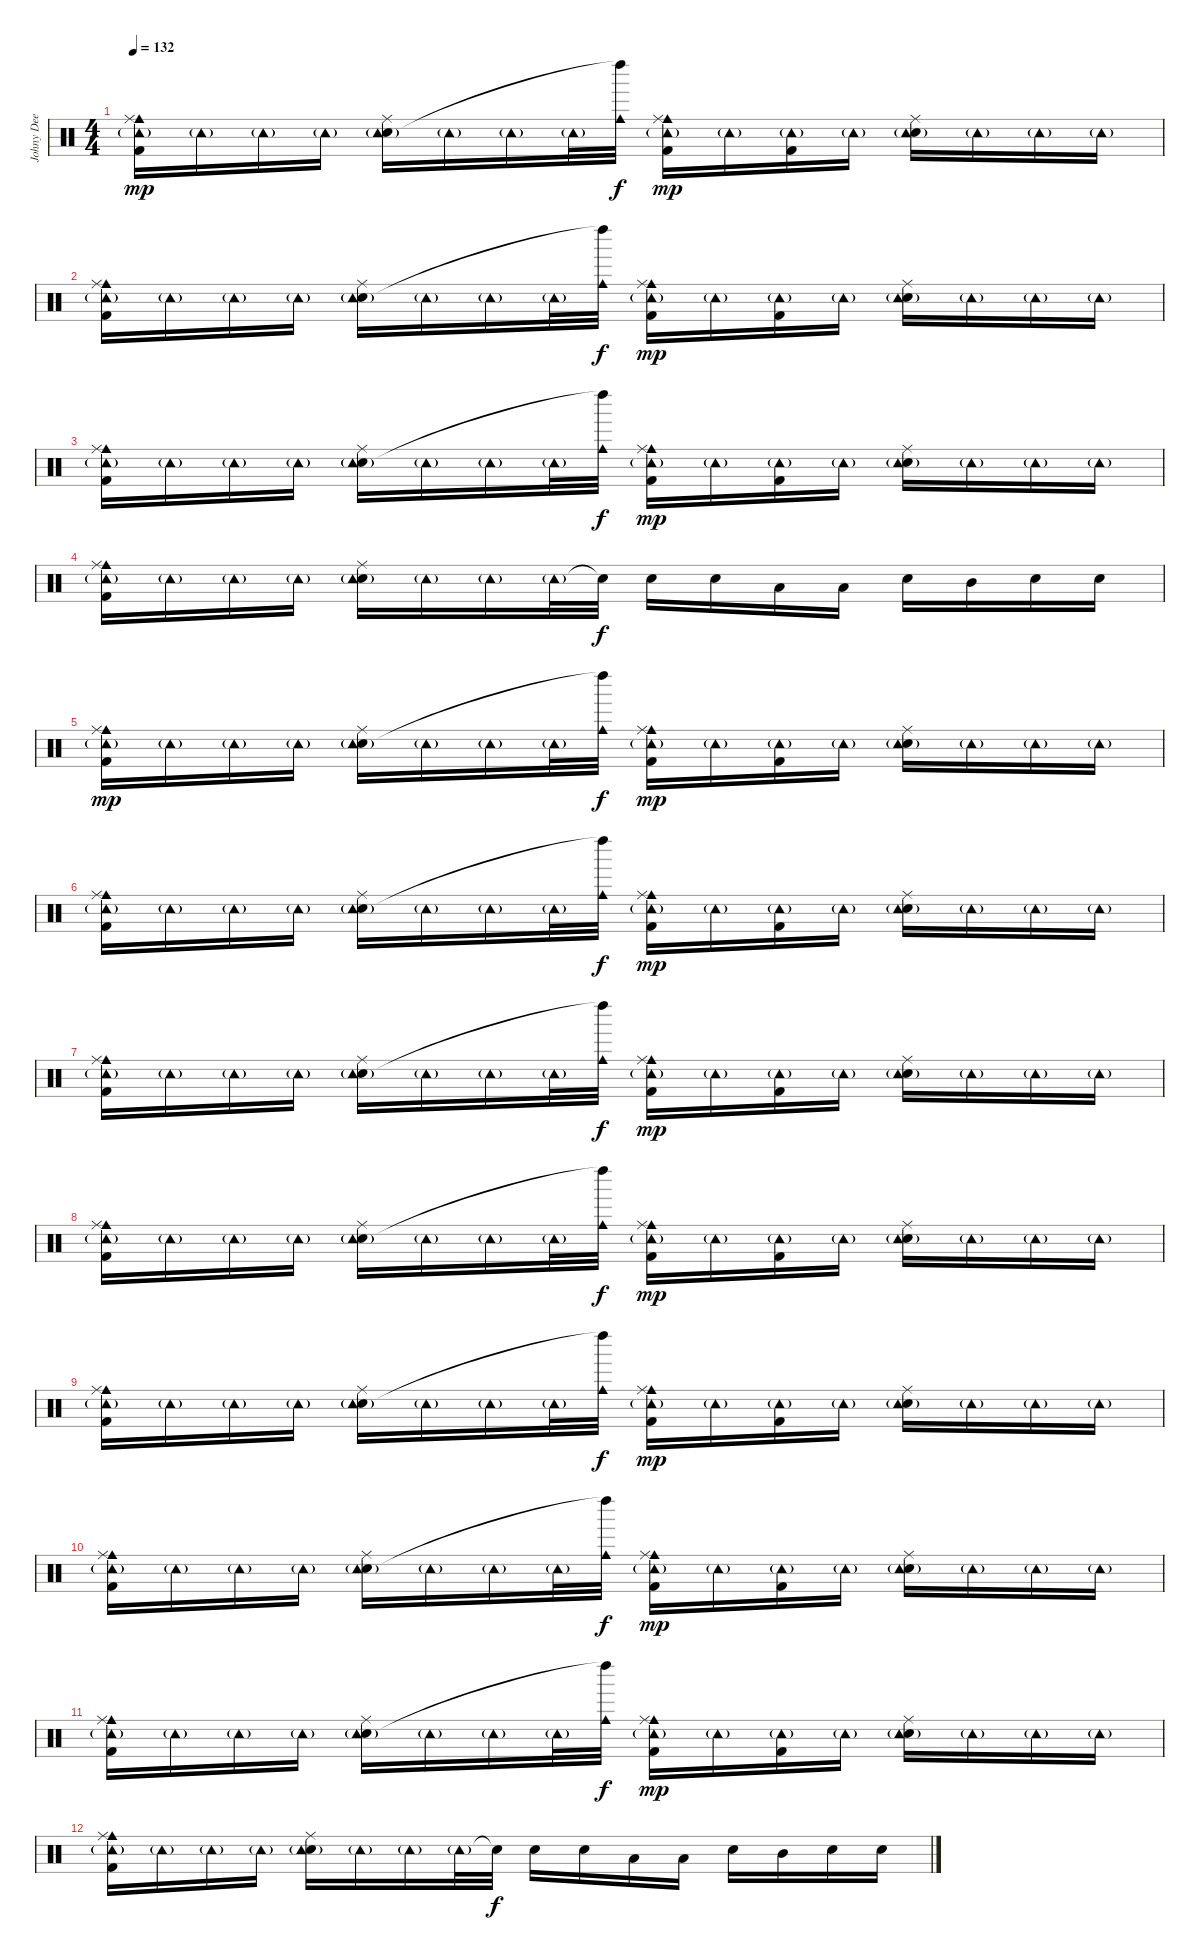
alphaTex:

\track ("Johny Dee" "Johny Dee") {instrument percussion}
\staff {score}
\articulation defaults
\ts (4 4)
\tempo 132
\clef neutral
\ks c
("Cowbell medium (hit)" "Ride (middle)" "Tambourine (hit)"{g} "Kick (hit) 2").16{dy mp} "Tambourine (hit)"{g}.16 "Tambourine (hit)"{g}.16 "Tambourine (hit)"{g}.16 ("Ride (middle)" "Snare (hit) 2" "Tambourine (hit)"{g}).16 "Tambourine (hit)"{g}.16 "Tambourine (hit)"{g}.16 "Tambourine (hit)"{g}.32 ("Cowbell medium (hit)" "Left Maraca (hit)"{t}).32{dy f} ("Cowbell medium (hit)" "Ride (middle)" "Tambourine (hit)"{g} "Kick (hit) 2").16{dy mp} "Tambourine (hit)"{g}.16 ("Tambourine (hit)"{g} "Kick (hit) 2").16 "Tambourine (hit)"{g}.16 ("Ride (middle)" "Snare (hit) 2" "Tambourine (hit)"{g}).16 "Tambourine (hit)"{g}.16 "Tambourine (hit)"{g}.16 "Tambourine (hit)"{g}.16 |
("Cowbell medium (hit)" "Ride (middle)" "Tambourine (hit)"{g} "Kick (hit) 2").16 "Tambourine (hit)"{g}.16 "Tambourine (hit)"{g}.16 "Tambourine (hit)"{g}.16 ("Ride (middle)" "Snare (hit) 2" "Tambourine (hit)"{g}).16 "Tambourine (hit)"{g}.16 "Tambourine (hit)"{g}.16 "Tambourine (hit)"{g}.32 ("Cowbell medium (hit)" "Left Maraca (hit)"{t}).32{dy f} ("Cowbell medium (hit)" "Ride (middle)" "Tambourine (hit)"{g} "Kick (hit) 2").16{dy mp} "Tambourine (hit)"{g}.16 ("Tambourine (hit)"{g} "Kick (hit) 2").16 "Tambourine (hit)"{g}.16 ("Ride (middle)" "Snare (hit) 2" "Tambourine (hit)"{g}).16 "Tambourine (hit)"{g}.16 "Tambourine (hit)"{g}.16 "Tambourine (hit)"{g}.16 |
("Cowbell medium (hit)" "Ride (middle)" "Tambourine (hit)"{g} "Kick (hit) 2").16 "Tambourine (hit)"{g}.16 "Tambourine (hit)"{g}.16 "Tambourine (hit)"{g}.16 ("Ride (middle)" "Snare (hit) 2" "Tambourine (hit)"{g}).16 "Tambourine (hit)"{g}.16 "Tambourine (hit)"{g}.16 "Tambourine (hit)"{g}.32 ("Cowbell medium (hit)" "Left Maraca (hit)"{t}).32{dy f} ("Cowbell medium (hit)" "Ride (middle)" "Tambourine (hit)"{g} "Kick (hit) 2").16{dy mp} "Tambourine (hit)"{g}.16 ("Tambourine (hit)"{g} "Kick (hit) 2").16 "Tambourine (hit)"{g}.16 ("Ride (middle)" "Snare (hit) 2" "Tambourine (hit)"{g}).16 "Tambourine (hit)"{g}.16 "Tambourine (hit)"{g}.16 "Tambourine (hit)"{g}.16 |
("Cowbell medium (hit)" "Ride (middle)" "Tambourine (hit)"{g} "Kick (hit) 2").16 "Tambourine (hit)"{g}.16 "Tambourine (hit)"{g}.16 "Tambourine (hit)"{g}.16 ("Ride (middle)" "Snare (hit) 2" "Tambourine (hit)"{g}).16 "Tambourine (hit)"{g}.16 "Tambourine (hit)"{g}.16 "Tambourine (hit)"{g}.32 "Snare (hit)"{t}.32{dy f} "Snare (hit) 2".16 "Snare (hit) 2".16 "Low Tom (hit)".16 "Low Tom (hit)".16 "Snare (hit) 2".16 "Mid Tom (hit)".16 "Snare (hit) 2".16 "Snare (hit) 2".16 |
("Cowbell medium (hit)" "Ride (middle)" "Tambourine (hit)"{g} "Kick (hit) 2").16{dy mp} "Tambourine (hit)"{g}.16 "Tambourine (hit)"{g}.16 "Tambourine (hit)"{g}.16 ("Ride (middle)" "Snare (hit) 2" "Tambourine (hit)"{g}).16 "Tambourine (hit)"{g}.16 "Tambourine (hit)"{g}.16 "Tambourine (hit)"{g}.32 ("Cowbell medium (hit)" "Left Maraca (hit)"{t}).32{dy f} ("Cowbell medium (hit)" "Ride (middle)" "Tambourine (hit)"{g} "Kick (hit) 2").16{dy mp} "Tambourine (hit)"{g}.16 ("Tambourine (hit)"{g} "Kick (hit) 2").16 "Tambourine (hit)"{g}.16 ("Ride (middle)" "Snare (hit) 2" "Tambourine (hit)"{g}).16 "Tambourine (hit)"{g}.16 "Tambourine (hit)"{g}.16 "Tambourine (hit)"{g}.16 |
("Cowbell medium (hit)" "Ride (middle)" "Tambourine (hit)"{g} "Kick (hit) 2").16 "Tambourine (hit)"{g}.16 "Tambourine (hit)"{g}.16 "Tambourine (hit)"{g}.16 ("Ride (middle)" "Snare (hit) 2" "Tambourine (hit)"{g}).16 "Tambourine (hit)"{g}.16 "Tambourine (hit)"{g}.16 "Tambourine (hit)"{g}.32 ("Cowbell medium (hit)" "Left Maraca (hit)"{t}).32{dy f} ("Cowbell medium (hit)" "Ride (middle)" "Tambourine (hit)"{g} "Kick (hit) 2").16{dy mp} "Tambourine (hit)"{g}.16 ("Tambourine (hit)"{g} "Kick (hit) 2").16 "Tambourine (hit)"{g}.16 ("Ride (middle)" "Snare (hit) 2" "Tambourine (hit)"{g}).16 "Tambourine (hit)"{g}.16 "Tambourine (hit)"{g}.16 "Tambourine (hit)"{g}.16 |
("Cowbell medium (hit)" "Ride (middle)" "Tambourine (hit)"{g} "Kick (hit) 2").16 "Tambourine (hit)"{g}.16 "Tambourine (hit)"{g}.16 "Tambourine (hit)"{g}.16 ("Ride (middle)" "Snare (hit) 2" "Tambourine (hit)"{g}).16 "Tambourine (hit)"{g}.16 "Tambourine (hit)"{g}.16 "Tambourine (hit)"{g}.32 ("Cowbell medium (hit)" "Left Maraca (hit)"{t}).32{dy f} ("Cowbell medium (hit)" "Ride (middle)" "Tambourine (hit)"{g} "Kick (hit) 2").16{dy mp} "Tambourine (hit)"{g}.16 ("Tambourine (hit)"{g} "Kick (hit) 2").16 "Tambourine (hit)"{g}.16 ("Ride (middle)" "Snare (hit) 2" "Tambourine (hit)"{g}).16 "Tambourine (hit)"{g}.16 "Tambourine (hit)"{g}.16 "Tambourine (hit)"{g}.16 |
("Cowbell medium (hit)" "Ride (middle)" "Tambourine (hit)"{g} "Kick (hit) 2").16 "Tambourine (hit)"{g}.16 "Tambourine (hit)"{g}.16 "Tambourine (hit)"{g}.16 ("Ride (middle)" "Snare (hit) 2" "Tambourine (hit)"{g}).16 "Tambourine (hit)"{g}.16 "Tambourine (hit)"{g}.16 "Tambourine (hit)"{g}.32 ("Cowbell medium (hit)" "Left Maraca (hit)"{t}).32{dy f} ("Cowbell medium (hit)" "Ride (middle)" "Tambourine (hit)"{g} "Kick (hit) 2").16{dy mp} "Tambourine (hit)"{g}.16 ("Tambourine (hit)"{g} "Kick (hit) 2").16 "Tambourine (hit)"{g}.16 ("Ride (middle)" "Snare (hit) 2" "Tambourine (hit)"{g}).16 "Tambourine (hit)"{g}.16 "Tambourine (hit)"{g}.16 "Tambourine (hit)"{g}.16 |
("Cowbell medium (hit)" "Ride (middle)" "Tambourine (hit)"{g} "Kick (hit) 2").16 "Tambourine (hit)"{g}.16 "Tambourine (hit)"{g}.16 "Tambourine (hit)"{g}.16 ("Ride (middle)" "Snare (hit) 2" "Tambourine (hit)"{g}).16 "Tambourine (hit)"{g}.16 "Tambourine (hit)"{g}.16 "Tambourine (hit)"{g}.32 ("Cowbell medium (hit)" "Left Maraca (hit)"{t}).32{dy f} ("Cowbell medium (hit)" "Ride (middle)" "Tambourine (hit)"{g} "Kick (hit) 2").16{dy mp} "Tambourine (hit)"{g}.16 ("Tambourine (hit)"{g} "Kick (hit) 2").16 "Tambourine (hit)"{g}.16 ("Ride (middle)" "Snare (hit) 2" "Tambourine (hit)"{g}).16 "Tambourine (hit)"{g}.16 "Tambourine (hit)"{g}.16 "Tambourine (hit)"{g}.16 |
("Cowbell medium (hit)" "Ride (middle)" "Tambourine (hit)"{g} "Kick (hit) 2").16 "Tambourine (hit)"{g}.16 "Tambourine (hit)"{g}.16 "Tambourine (hit)"{g}.16 ("Ride (middle)" "Snare (hit) 2" "Tambourine (hit)"{g}).16 "Tambourine (hit)"{g}.16 "Tambourine (hit)"{g}.16 "Tambourine (hit)"{g}.32 ("Cowbell medium (hit)" "Left Maraca (hit)"{t}).32{dy f} ("Cowbell medium (hit)" "Ride (middle)" "Tambourine (hit)"{g} "Kick (hit) 2").16{dy mp} "Tambourine (hit)"{g}.16 ("Tambourine (hit)"{g} "Kick (hit) 2").16 "Tambourine (hit)"{g}.16 ("Ride (middle)" "Snare (hit) 2" "Tambourine (hit)"{g}).16 "Tambourine (hit)"{g}.16 "Tambourine (hit)"{g}.16 "Tambourine (hit)"{g}.16 |
("Cowbell medium (hit)" "Ride (middle)" "Tambourine (hit)"{g} "Kick (hit) 2").16 "Tambourine (hit)"{g}.16 "Tambourine (hit)"{g}.16 "Tambourine (hit)"{g}.16 ("Ride (middle)" "Snare (hit) 2" "Tambourine (hit)"{g}).16 "Tambourine (hit)"{g}.16 "Tambourine (hit)"{g}.16 "Tambourine (hit)"{g}.32 ("Cowbell medium (hit)" "Left Maraca (hit)"{t}).32{dy f} ("Cowbell medium (hit)" "Ride (middle)" "Tambourine (hit)"{g} "Kick (hit) 2").16{dy mp} "Tambourine (hit)"{g}.16 ("Tambourine (hit)"{g} "Kick (hit) 2").16 "Tambourine (hit)"{g}.16 ("Ride (middle)" "Snare (hit) 2" "Tambourine (hit)"{g}).16 "Tambourine (hit)"{g}.16 "Tambourine (hit)"{g}.16 "Tambourine (hit)"{g}.16 |
("Cowbell medium (hit)" "Ride (middle)" "Tambourine (hit)"{g} "Kick (hit) 2").16 "Tambourine (hit)"{g}.16 "Tambourine (hit)"{g}.16 "Tambourine (hit)"{g}.16 ("Ride (middle)" "Snare (hit) 2" "Tambourine (hit)"{g}).16 "Tambourine (hit)"{g}.16 "Tambourine (hit)"{g}.16 "Tambourine (hit)"{g}.32 "Snare (hit)"{t}.32{dy f} "Snare (hit) 2".16 "Snare (hit) 2".16 "Low Tom (hit)".16 "Low Tom (hit)".16 "Snare (hit) 2".16 "Mid Tom (hit)".16 "Snare (hit) 2".16 "Snare (hit) 2".16
